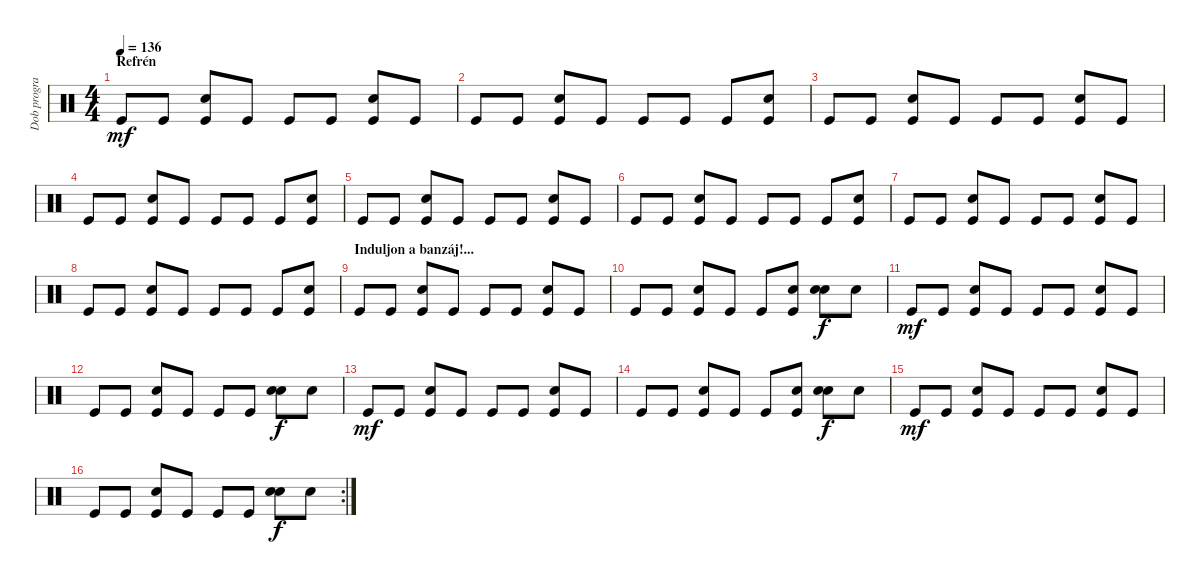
\track ("Dob program" "Dob progra") {instrument percussion}
\staff {score}
\articulation defaults
\ts (4 4)
\section ("" "Refrén")
\tempo 136
\clef neutral
\ks c "Kick (hit)".8{dy mf} "Kick (hit)".8
("Electric Snare (hit)" "Kick (hit)").8 "Kick (hit)".8 "Kick (hit)".8 "Kick (hit)".8 ("Electric Snare (hit)" "Kick (hit)").8 "Kick (hit)".8 |
"Kick (hit)".8 "Kick (hit)".8 ("Electric Snare (hit)" "Kick (hit)").8 "Kick (hit)".8 "Kick (hit)".8 "Kick (hit)".8 "Kick (hit)".8 ("Electric Snare (hit)" "Kick (hit)").8 |
"Kick (hit)".8 "Kick (hit)".8 ("Electric Snare (hit)" "Kick (hit)").8 "Kick (hit)".8 "Kick (hit)".8 "Kick (hit)".8 ("Electric Snare (hit)" "Kick (hit)").8 "Kick (hit)".8 |
"Kick (hit)".8 "Kick (hit)".8 ("Electric Snare (hit)" "Kick (hit)").8 "Kick (hit)".8 "Kick (hit)".8 "Kick (hit)".8 "Kick (hit)".8 ("Electric Snare (hit)" "Kick (hit)").8 |
"Kick (hit)".8 "Kick (hit)".8 ("Electric Snare (hit)" "Kick (hit)").8 "Kick (hit)".8 "Kick (hit)".8 "Kick (hit)".8 ("Electric Snare (hit)" "Kick (hit)").8 "Kick (hit)".8 |
"Kick (hit)".8 "Kick (hit)".8 ("Electric Snare (hit)" "Kick (hit)").8 "Kick (hit)".8 "Kick (hit)".8 "Kick (hit)".8 "Kick (hit)".8 ("Electric Snare (hit)" "Kick (hit)").8 |
"Kick (hit)".8 "Kick (hit)".8 ("Electric Snare (hit)" "Kick (hit)").8 "Kick (hit)".8 "Kick (hit)".8 "Kick (hit)".8 ("Electric Snare (hit)" "Kick (hit)").8 "Kick (hit)".8 |
"Kick (hit)".8 "Kick (hit)".8 ("Electric Snare (hit)" "Kick (hit)").8 "Kick (hit)".8 "Kick (hit)".8 "Kick (hit)".8 "Kick (hit)".8 ("Electric Snare (hit)" "Kick (hit)").8 |
\section ("" "Induljon a banzáj!...")
"Kick (hit)".8 "Kick (hit)".8 ("Electric Snare (hit)" "Kick (hit)").8 "Kick (hit)".8 "Kick (hit)".8 "Kick (hit)".8 ("Electric Snare (hit)" "Kick (hit)").8 "Kick (hit)".8 |
"Kick (hit)".8 "Kick (hit)".8 ("Electric Snare (hit)" "Kick (hit)").8 "Kick (hit)".8 "Kick (hit)".8 ("Hand Clap (hit)" "Kick (hit)").8 ("Hand Clap (hit)" "Electric Snare (hit)").8{dy f} "Hand Clap (hit)".8 |
"Kick (hit)".8{dy mf} "Kick (hit)".8 ("Electric Snare (hit)" "Kick (hit)").8 "Kick (hit)".8 "Kick (hit)".8 "Kick (hit)".8 ("Electric Snare (hit)" "Kick (hit)").8 "Kick (hit)".8 |
"Kick (hit)".8 "Kick (hit)".8 ("Electric Snare (hit)" "Kick (hit)").8 "Kick (hit)".8 "Kick (hit)".8 "Kick (hit)".8 ("Hand Clap (hit)" "Electric Snare (hit)").8{dy f} "Hand Clap (hit)".8 |
"Kick (hit)".8{dy mf} "Kick (hit)".8 ("Electric Snare (hit)" "Kick (hit)").8 "Kick (hit)".8 "Kick (hit)".8 "Kick (hit)".8 ("Electric Snare (hit)" "Kick (hit)").8 "Kick (hit)".8 |
"Kick (hit)".8 "Kick (hit)".8 ("Electric Snare (hit)" "Kick (hit)").8 "Kick (hit)".8 "Kick (hit)".8 ("Hand Clap (hit)" "Kick (hit)").8 ("Hand Clap (hit)" "Electric Snare (hit)").8{dy f} "Hand Clap (hit)".8 |
"Kick (hit)".8{dy mf} "Kick (hit)".8 ("Electric Snare (hit)" "Kick (hit)").8 "Kick (hit)".8 "Kick (hit)".8 "Kick (hit)".8 ("Electric Snare (hit)" "Kick (hit)").8 "Kick (hit)".8 |
\rc 2 "Kick (hit)".8 "Kick (hit)".8
("Electric Snare (hit)" "Kick (hit)").8 "Kick (hit)".8 "Kick (hit)".8 "Kick (hit)".8 ("Hand Clap (hit)" "Electric Snare (hit)").8{dy f} "Hand Clap (hit)".8
